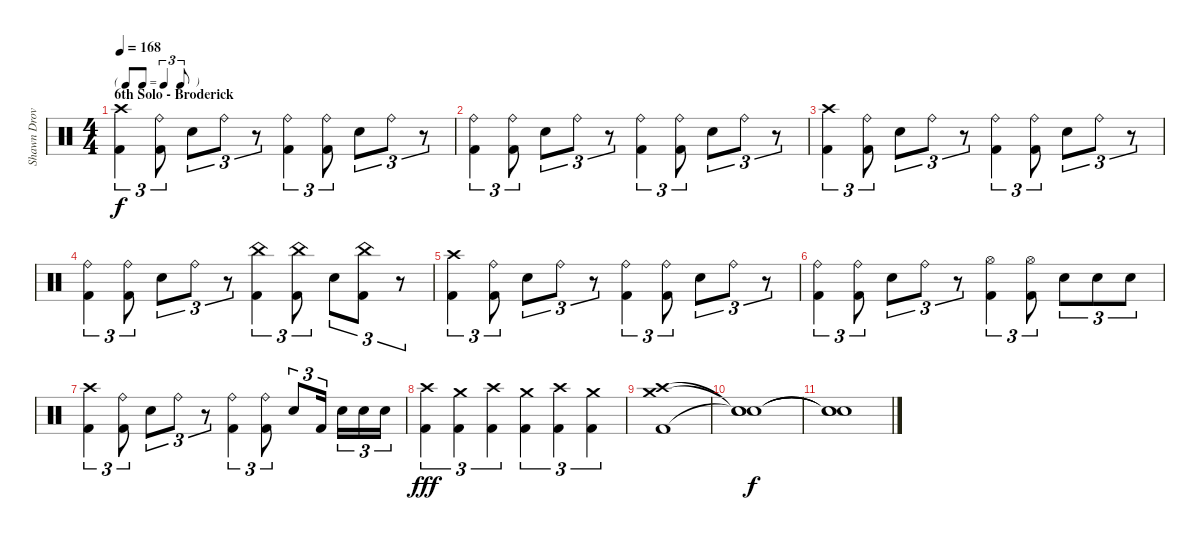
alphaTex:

\track ("Shawn Drover" "Shawn Drov") {instrument percussion}
\staff {score}
\articulation defaults
\ts (4 4)
\tf triplet8th
\section ("" "6th Solo - Broderick")
\tempo 168
\clef neutral
\ks c
("Kick (hit) 2" "Crash high (hit)").4{tu (3 2) dy f} ("Kick (hit) 2" "Ride (bell)").8{tu (3 2)} "Snare (hit) 2".8{tu (3 2)} "Ride (bell)".8{tu (3 2)} r.8{tu (3 2)} ("Kick (hit) 2" "Ride (bell)").4{tu (3 2)} ("Kick (hit) 2" "Ride (bell)").8{tu (3 2)} "Snare (hit) 2".8{tu (3 2)} "Ride (bell)".8{tu (3 2)} r.8{tu (3 2)} |
("Kick (hit) 2" "Ride (bell)").4{tu (3 2)} ("Kick (hit) 2" "Ride (bell)").8{tu (3 2)} "Snare (hit) 2".8{tu (3 2)} "Ride (bell)".8{tu (3 2)} r.8{tu (3 2)} ("Kick (hit) 2" "Ride (bell)").4{tu (3 2)} ("Kick (hit) 2" "Ride (bell)").8{tu (3 2)} "Snare (hit) 2".8{tu (3 2)} "Ride (bell)".8{tu (3 2)} r.8{tu (3 2)} |
("Kick (hit) 2" "Crash high (hit)").4{tu (3 2)} ("Kick (hit) 2" "Ride (bell)").8{tu (3 2)} "Snare (hit) 2".8{tu (3 2)} "Ride (bell)".8{tu (3 2)} r.8{tu (3 2)} ("Kick (hit) 2" "Ride (bell)").4{tu (3 2)} ("Kick (hit) 2" "Ride (bell)").8{tu (3 2)} "Snare (hit) 2".8{tu (3 2)} "Ride (bell)".8{tu (3 2)} r.8{tu (3 2)} |
("Kick (hit) 2" "Ride (bell)").4{tu (3 2)} ("Kick (hit) 2" "Ride (bell)").8{tu (3 2)} "Snare (hit) 2".8{tu (3 2)} "Ride (bell)".8{tu (3 2)} r.8{tu (3 2)} ("Kick (hit) 2" "China (hit)").4{tu (3 2)} ("Kick (hit) 2" "China (hit)").8{tu (3 2)} "Snare (hit) 2".8{tu (3 2)} ("Kick (hit) 2" "China (hit)").8{tu (3 2)} r.8{tu (3 2)} |
("Kick (hit) 2" "Crash high (hit)").4{tu (3 2)} ("Kick (hit) 2" "Ride (bell)").8{tu (3 2)} "Snare (hit) 2".8{tu (3 2)} "Ride (bell)".8{tu (3 2)} r.8{tu (3 2)} ("Kick (hit) 2" "Ride (bell)").4{tu (3 2)} ("Kick (hit) 2" "Ride (bell)").8{tu (3 2)} "Snare (hit) 2".8{tu (3 2)} "Ride (bell)".8{tu (3 2)} r.8{tu (3 2)} |
("Kick (hit) 2" "Ride (bell)").4{tu (3 2)} ("Kick (hit) 2" "Ride (bell)").8{tu (3 2)} "Snare (hit) 2".8{tu (3 2)} "Ride (bell)".8{tu (3 2)} r.8{tu (3 2)} ("Kick (hit) 2" "Hi-Hat (open)").4{tu (3 2)} ("Kick (hit) 2" "Hi-Hat (open)").8{tu (3 2)} "Snare (hit) 2".8{tu (3 2)} "Snare (hit) 2".8{tu (3 2)} "Snare (hit) 2".8{tu (3 2)} |
("Kick (hit) 2" "Crash high (hit)").4{tu (3 2)} ("Kick (hit) 2" "Ride (bell)").8{tu (3 2)} "Snare (hit) 2".8{tu (3 2)} "Ride (bell)".8{tu (3 2)} r.8{tu (3 2)} ("Kick (hit) 2" "Ride (bell)").4{tu (3 2)} ("Kick (hit) 2" "Ride (bell)").8{tu (3 2)} "Snare (hit) 2".8{tu (3 2)} "Kick (hit) 2".16{tu (3 2) beam splitsecondary} "Snare (hit) 2".16{tu (3 2)} "Snare (hit) 2".16{tu (3 2)} "Snare (hit) 2".16{tu (3 2)} |
("Kick (hit) 2" "Crash high (hit)").4{tu (3 2) dy fff} ("Kick (hit) 2" "Crash medium (hit)").4{tu (3 2)} ("Kick (hit) 2" "Crash high (hit)").4{tu (3 2)} ("Kick (hit) 2" "Crash medium (hit)").4{tu (3 2)} ("Kick (hit) 2" "Crash high (hit)").4{tu (3 2)} ("Kick (hit) 2" "Crash medium (hit)").4{tu (3 2)} |
("Kick (hit) 2" "Crash medium (hit)" "Crash high (hit)").1 |
("Snare (hit)"{t} "Snare (hit)"{t} "Snare (hit)"{t}).1{dy f} |
("Snare (hit)"{t} "Snare (hit)"{t} "Snare (hit)"{t}).1
